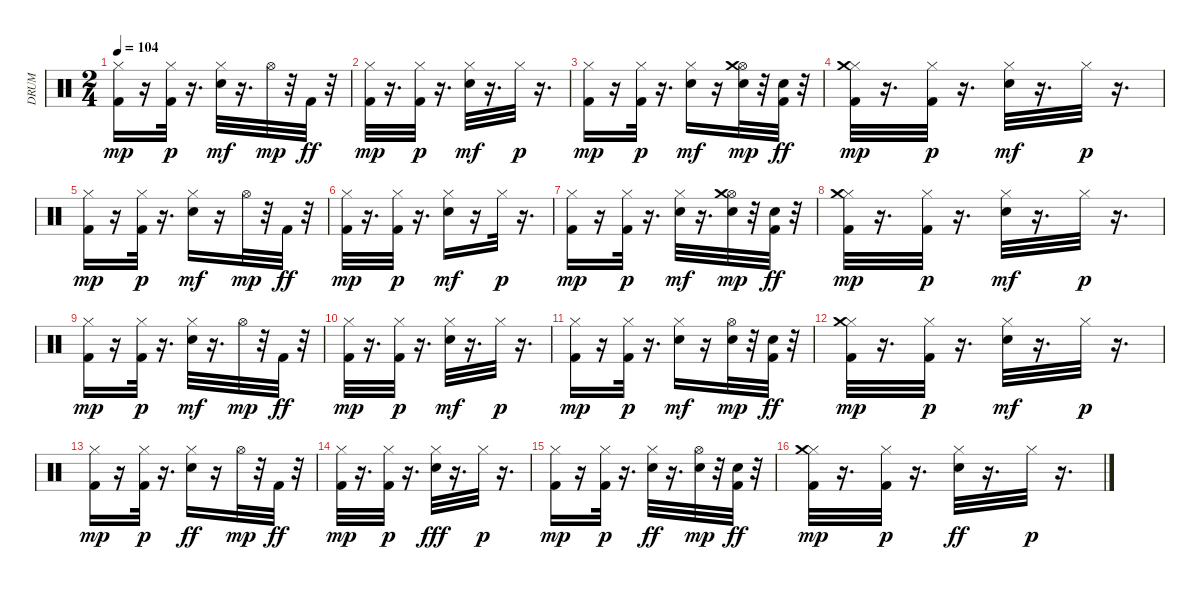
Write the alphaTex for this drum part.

\track ("DRUM    " "DRUM    ") {instrument percussion}
\staff {score}
\articulation defaults
\ts (2 4)
\tempo 104
\clef neutral
\ks c
("Kick (hit) 2" "Hi-Hat (closed)").16{dy mp} r.16 ("Kick (hit) 2" "Hi-Hat (closed)").32{dy p} r.16{d} ("Snare (hit) 2" "Hi-Hat (closed)").32{dy mf} r.16{d} "Hi-Hat (open)".32{dy mp} r.32 "Kick (hit) 2".32{dy ff} r.32 |
("Kick (hit) 2" "Hi-Hat (closed)").32{dy mp} r.16{d} ("Kick (hit) 2" "Hi-Hat (closed)").32{dy p} r.16{d} ("Snare (hit) 2" "Hi-Hat (closed)").32{dy mf} r.16{d} "Hi-Hat (closed)".32{dy p} r.16{d} |
("Kick (hit) 2" "Hi-Hat (closed)").16{dy mp} r.16 ("Kick (hit) 2" "Hi-Hat (closed)").32{dy p} r.16{d} ("Snare (hit) 2" "Hi-Hat (closed)").16{dy mf} r.16 ("Snare (hit) 2" "Hi-Hat (open)" "Crash medium (hit)").32{dy mp} r.32 ("Kick (hit) 2" "Snare (hit) 2").32{dy ff} r.32 |
("Kick (hit) 2" "Hi-Hat (closed)" "Crash medium (hit)").32{dy mp} r.16{d} ("Kick (hit) 2" "Hi-Hat (closed)").32{dy p} r.16{d} ("Snare (hit) 2" "Hi-Hat (closed)").32{dy mf} r.16{d} "Hi-Hat (closed)".32{dy p} r.16{d} |
("Kick (hit) 2" "Hi-Hat (closed)").16{dy mp} r.16 ("Kick (hit) 2" "Hi-Hat (closed)").32{dy p} r.16{d} ("Snare (hit) 2" "Hi-Hat (closed)").16{dy mf} r.16 "Hi-Hat (open)".32{dy mp} r.32 "Kick (hit) 2".32{dy ff} r.32 |
("Kick (hit) 2" "Hi-Hat (closed)").32{dy mp} r.16{d} ("Kick (hit) 2" "Hi-Hat (closed)").32{dy p} r.16{d} ("Snare (hit) 2" "Hi-Hat (closed)").16{dy mf} r.16 "Hi-Hat (closed)".32{dy p} r.16{d} |
("Kick (hit) 2" "Hi-Hat (closed)").16{dy mp} r.16 ("Kick (hit) 2" "Hi-Hat (closed)").32{dy p} r.16{d} ("Snare (hit) 2" "Hi-Hat (closed)").32{dy mf} r.16{d} ("Snare (hit) 2" "Hi-Hat (open)" "Crash medium (hit)").32{dy mp} r.32 ("Kick (hit) 2" "Snare (hit) 2").32{dy ff} r.32 |
("Kick (hit) 2" "Hi-Hat (closed)" "Crash medium (hit)").32{dy mp} r.16{d} ("Kick (hit) 2" "Hi-Hat (closed)").32{dy p} r.16{d} ("Snare (hit) 2" "Hi-Hat (closed)").32{dy mf} r.16{d} "Hi-Hat (closed)".32{dy p} r.16{d} |
("Kick (hit) 2" "Hi-Hat (closed)").16{dy mp} r.16 ("Kick (hit) 2" "Hi-Hat (closed)").32{dy p} r.16{d} ("Snare (hit) 2" "Hi-Hat (closed)").32{dy mf} r.16{d} "Hi-Hat (open)".32{dy mp} r.32 "Kick (hit) 2".32{dy ff} r.32 |
("Kick (hit) 2" "Hi-Hat (closed)").32{dy mp} r.16{d} ("Kick (hit) 2" "Hi-Hat (closed)").32{dy p} r.16{d} ("Snare (hit) 2" "Hi-Hat (closed)").32{dy mf} r.16{d} "Hi-Hat (closed)".32{dy p} r.16{d} |
("Kick (hit) 2" "Hi-Hat (closed)").16{dy mp} r.16 ("Kick (hit) 2" "Hi-Hat (closed)").32{dy p} r.16{d} ("Snare (hit) 2" "Hi-Hat (closed)").16{dy mf} r.16 ("Snare (hit) 2" "Hi-Hat (open)").32{dy mp} r.32 ("Kick (hit) 2" "Snare (hit) 2").32{dy ff} r.32 |
("Kick (hit) 2" "Hi-Hat (closed)" "Crash medium (hit)").32{dy mp} r.16{d} ("Kick (hit) 2" "Hi-Hat (closed)").32{dy p} r.16{d} ("Snare (hit) 2" "Hi-Hat (closed)").32{dy mf} r.16{d} "Hi-Hat (closed)".32{dy p} r.16{d} |
("Kick (hit) 2" "Hi-Hat (closed)").16{dy mp} r.16 ("Kick (hit) 2" "Hi-Hat (closed)").32{dy p} r.16{d} ("Hi-Hat (closed)" "Snare (hit) 2").16{dy ff} r.16 "Hi-Hat (open)".32{dy mp} r.32 "Kick (hit) 2".32{dy ff} r.32 |
("Kick (hit) 2" "Hi-Hat (closed)").32{dy mp} r.16{d} ("Kick (hit) 2" "Hi-Hat (closed)").32{dy p} r.16{d} ("Hi-Hat (closed)" "Snare (hit) 2").32{dy fff} r.16{d} "Hi-Hat (closed)".32{dy p} r.16{d} |
("Kick (hit) 2" "Hi-Hat (closed)").16{dy mp} r.16 ("Kick (hit) 2" "Hi-Hat (closed)").32{dy p} r.16{d} ("Hi-Hat (closed)" "Snare (hit) 2").32{dy ff} r.16{d} ("Hi-Hat (open)" "Snare (hit) 2").32{dy mp} r.32 ("Kick (hit) 2" "Snare (hit) 2").32{dy ff} r.32 |
("Kick (hit) 2" "Hi-Hat (closed)" "Crash medium (hit)").32{dy mp} r.16{d} ("Kick (hit) 2" "Hi-Hat (closed)").32{dy p} r.16{d} ("Hi-Hat (closed)" "Snare (hit) 2").32{dy ff} r.16{d} "Hi-Hat (closed)".32{dy p} r.16{d}
